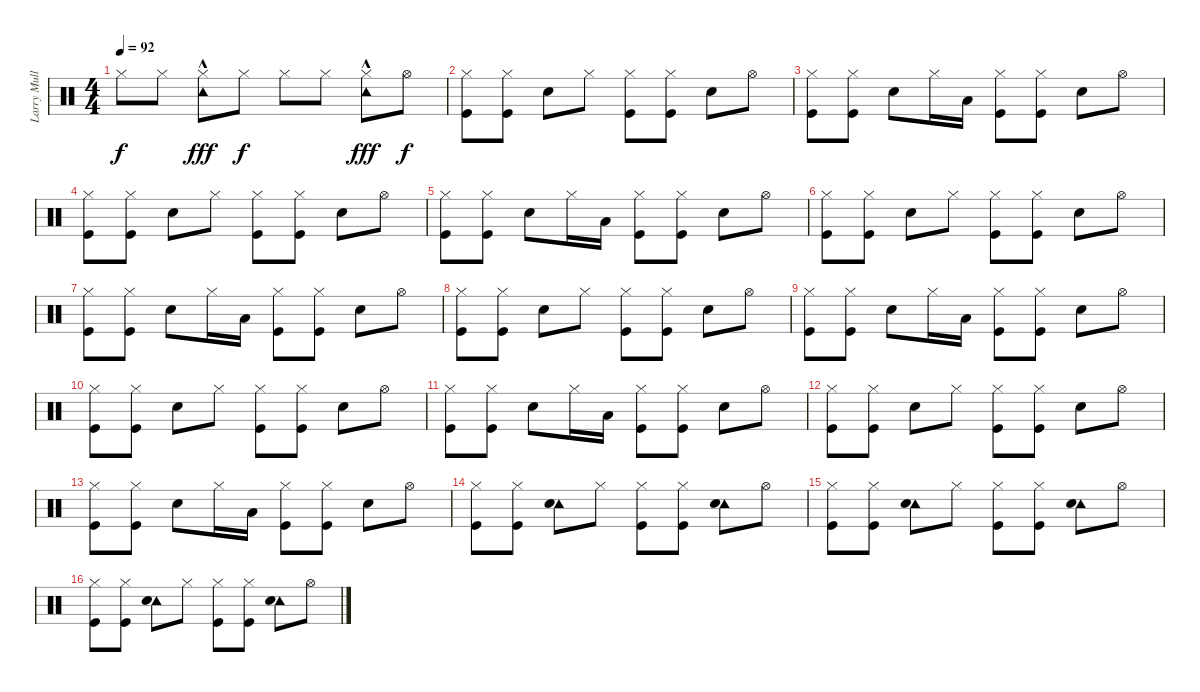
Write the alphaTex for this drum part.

\track ("Larry Mullen Junior" "Larry Mull") {instrument percussion}
\staff {score}
\articulation defaults
\ts (4 4)
\tempo 92
\clef neutral
\ks c "Hi-Hat (closed)".8{dy f} "Hi-Hat (closed)".8
("Hi-Hat (closed)"{hac} "Tambourine (hit)").8{dy fff} "Hi-Hat (closed)".8{dy f} "Hi-Hat (closed)".8 "Hi-Hat (closed)".8 ("Hi-Hat (closed)"{hac} "Tambourine (hit)").8{dy fff} "Hi-Hat (open)".8{dy f} |
("Hi-Hat (closed)" "Kick (hit)").8 ("Hi-Hat (closed)" "Kick (hit)").8 "Electric Snare (hit)".8 "Hi-Hat (closed)".8 ("Hi-Hat (closed)" "Kick (hit)").8 ("Hi-Hat (closed)" "Kick (hit)").8 "Electric Snare (hit)".8 "Hi-Hat (open)".8 |
("Hi-Hat (closed)" "Kick (hit)").8 ("Hi-Hat (closed)" "Kick (hit)").8 "Electric Snare (hit)".8 "Hi-Hat (closed)".16 "Low Floor Tom (hit)".16 ("Hi-Hat (closed)" "Kick (hit)").8 ("Hi-Hat (closed)" "Kick (hit)").8 "Electric Snare (hit)".8 "Hi-Hat (open)".8 |
("Hi-Hat (closed)" "Kick (hit)").8 ("Hi-Hat (closed)" "Kick (hit)").8 "Electric Snare (hit)".8 "Hi-Hat (closed)".8 ("Hi-Hat (closed)" "Kick (hit)").8 ("Hi-Hat (closed)" "Kick (hit)").8 "Electric Snare (hit)".8 "Hi-Hat (open)".8 |
("Hi-Hat (closed)" "Kick (hit)").8 ("Hi-Hat (closed)" "Kick (hit)").8 "Electric Snare (hit)".8 "Hi-Hat (closed)".16 "Low Floor Tom (hit)".16 ("Hi-Hat (closed)" "Kick (hit)").8 ("Hi-Hat (closed)" "Kick (hit)").8 "Electric Snare (hit)".8 "Hi-Hat (open)".8 |
("Hi-Hat (closed)" "Kick (hit)").8 ("Hi-Hat (closed)" "Kick (hit)").8 "Electric Snare (hit)".8 "Hi-Hat (closed)".8 ("Hi-Hat (closed)" "Kick (hit)").8 ("Hi-Hat (closed)" "Kick (hit)").8 "Electric Snare (hit)".8 "Hi-Hat (open)".8 |
("Hi-Hat (closed)" "Kick (hit)").8 ("Hi-Hat (closed)" "Kick (hit)").8 "Electric Snare (hit)".8 "Hi-Hat (closed)".16 "Low Floor Tom (hit)".16 ("Hi-Hat (closed)" "Kick (hit)").8 ("Hi-Hat (closed)" "Kick (hit)").8 "Electric Snare (hit)".8 "Hi-Hat (open)".8 |
("Hi-Hat (closed)" "Kick (hit)").8 ("Hi-Hat (closed)" "Kick (hit)").8 "Electric Snare (hit)".8 "Hi-Hat (closed)".8 ("Hi-Hat (closed)" "Kick (hit)").8 ("Hi-Hat (closed)" "Kick (hit)").8 "Electric Snare (hit)".8 "Hi-Hat (open)".8 |
("Hi-Hat (closed)" "Kick (hit)").8 ("Hi-Hat (closed)" "Kick (hit)").8 "Electric Snare (hit)".8 "Hi-Hat (closed)".16 "Low Floor Tom (hit)".16 ("Hi-Hat (closed)" "Kick (hit)").8 ("Hi-Hat (closed)" "Kick (hit)").8 "Electric Snare (hit)".8 "Hi-Hat (open)".8 |
("Hi-Hat (closed)" "Kick (hit)").8 ("Hi-Hat (closed)" "Kick (hit)").8 "Electric Snare (hit)".8 "Hi-Hat (closed)".8 ("Hi-Hat (closed)" "Kick (hit)").8 ("Hi-Hat (closed)" "Kick (hit)").8 "Electric Snare (hit)".8 "Hi-Hat (open)".8 |
("Hi-Hat (closed)" "Kick (hit)").8 ("Hi-Hat (closed)" "Kick (hit)").8 "Electric Snare (hit)".8 "Hi-Hat (closed)".16 "Low Floor Tom (hit)".16 ("Hi-Hat (closed)" "Kick (hit)").8 ("Hi-Hat (closed)" "Kick (hit)").8 "Electric Snare (hit)".8 "Hi-Hat (open)".8 |
("Hi-Hat (closed)" "Kick (hit)").8 ("Hi-Hat (closed)" "Kick (hit)").8 "Electric Snare (hit)".8 "Hi-Hat (closed)".8 ("Hi-Hat (closed)" "Kick (hit)").8 ("Hi-Hat (closed)" "Kick (hit)").8 "Electric Snare (hit)".8 "Hi-Hat (open)".8 |
("Hi-Hat (closed)" "Kick (hit)").8 ("Hi-Hat (closed)" "Kick (hit)").8 "Electric Snare (hit)".8 "Hi-Hat (closed)".16 "Low Floor Tom (hit)".16 ("Hi-Hat (closed)" "Kick (hit)").8 ("Hi-Hat (closed)" "Kick (hit)").8 "Electric Snare (hit)".8 "Hi-Hat (open)".8 |
("Hi-Hat (closed)" "Kick (hit)").8 ("Hi-Hat (closed)" "Kick (hit)").8 ("Tambourine (hit)" "Electric Snare (hit)").8 "Hi-Hat (closed)".8 ("Hi-Hat (closed)" "Kick (hit)").8 ("Hi-Hat (closed)" "Kick (hit)").8 ("Tambourine (hit)" "Electric Snare (hit)").8 "Hi-Hat (open)".8 |
("Hi-Hat (closed)" "Kick (hit)").8 ("Hi-Hat (closed)" "Kick (hit)").8 ("Tambourine (hit)" "Electric Snare (hit)").8 "Hi-Hat (closed)".8 ("Hi-Hat (closed)" "Kick (hit)").8 ("Hi-Hat (closed)" "Kick (hit)").8 ("Tambourine (hit)" "Electric Snare (hit)").8 "Hi-Hat (open)".8 |
("Hi-Hat (closed)" "Kick (hit)").8 ("Hi-Hat (closed)" "Kick (hit)").8 ("Tambourine (hit)" "Electric Snare (hit)").8 "Hi-Hat (closed)".8 ("Hi-Hat (closed)" "Kick (hit)").8 ("Hi-Hat (closed)" "Kick (hit)").8 ("Tambourine (hit)" "Electric Snare (hit)").8 "Hi-Hat (open)".8
